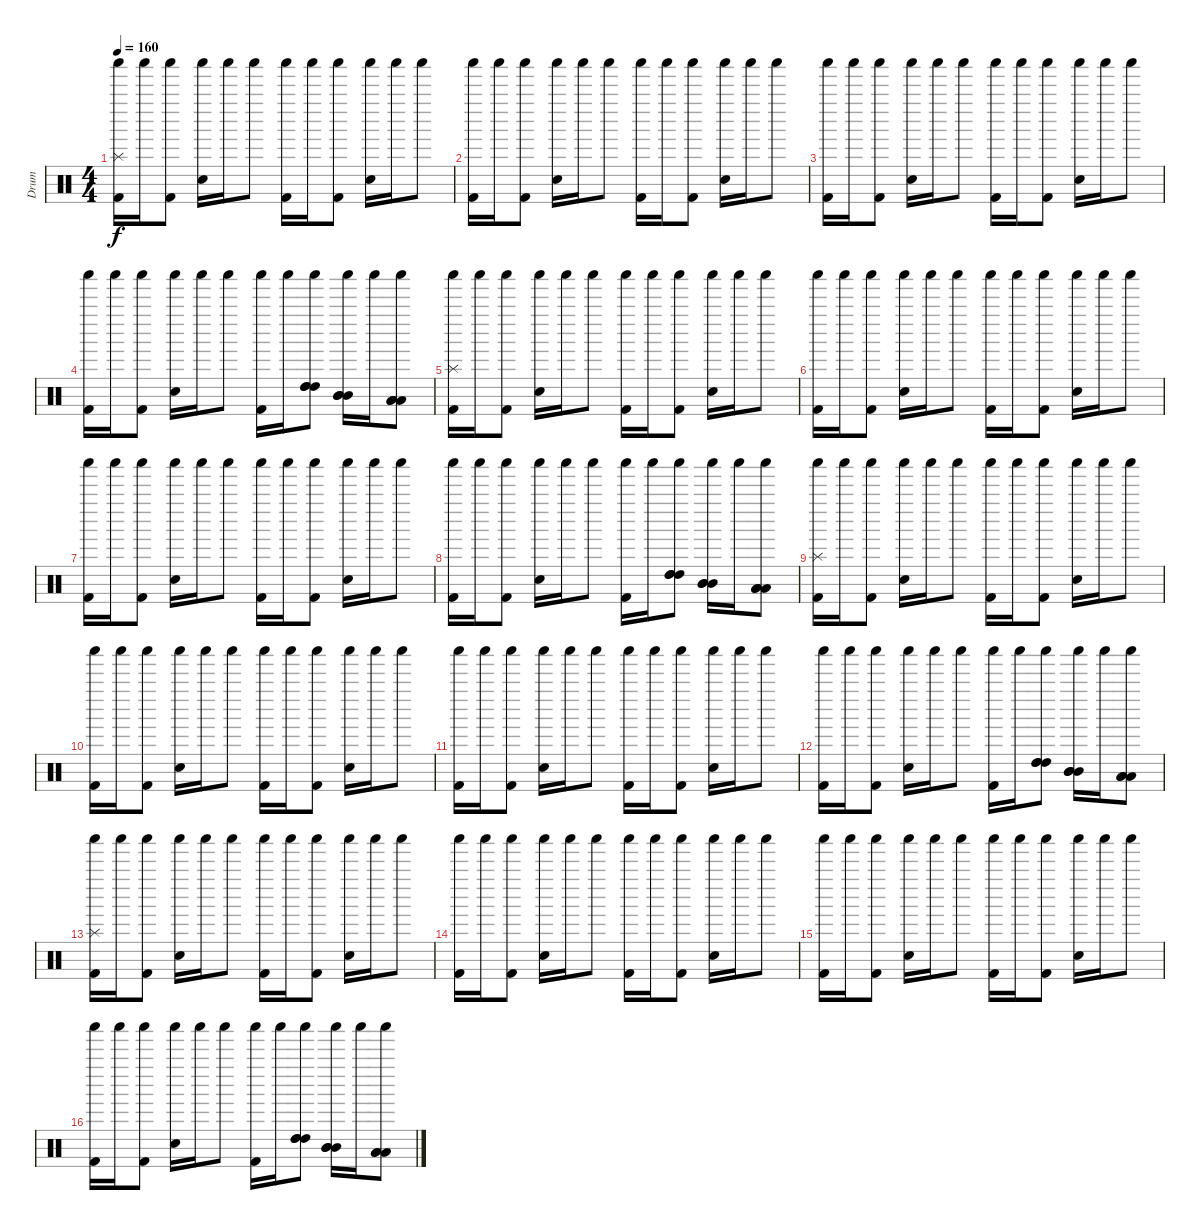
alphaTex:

\track ("Drum" "Drum") {instrument percussion}
\staff {score}
\articulation defaults
\ts (4 4)
\tempo 160
\clef neutral
\ks c
("Splash (hit)" "Shaker (hit)" "Kick (hit) 2").16{dy f} "Shaker (hit)".16 ("Shaker (hit)" "Kick (hit) 2").8 ("Shaker (hit)" "Snare (hit) 2").16 "Shaker (hit)".16 "Shaker (hit)".8 ("Shaker (hit)" "Kick (hit) 2").16 "Shaker (hit)".16 ("Shaker (hit)" "Kick (hit) 2").8 ("Shaker (hit)" "Snare (hit) 2").16 "Shaker (hit)".16 "Shaker (hit)".8 |
("Shaker (hit)" "Kick (hit) 2").16 "Shaker (hit)".16 ("Shaker (hit)" "Kick (hit) 2").8 ("Shaker (hit)" "Snare (hit) 2").16 "Shaker (hit)".16 "Shaker (hit)".8 ("Shaker (hit)" "Kick (hit) 2").16 "Shaker (hit)".16 ("Shaker (hit)" "Kick (hit) 2").8 ("Shaker (hit)" "Snare (hit) 2").16 "Shaker (hit)".16 "Shaker (hit)".8 |
("Shaker (hit)" "Kick (hit) 2").16 "Shaker (hit)".16 ("Shaker (hit)" "Kick (hit) 2").8 ("Shaker (hit)" "Snare (hit) 2").16 "Shaker (hit)".16 "Shaker (hit)".8 ("Shaker (hit)" "Kick (hit) 2").16 "Shaker (hit)".16 ("Shaker (hit)" "Kick (hit) 2").8 ("Shaker (hit)" "Snare (hit) 2").16 "Shaker (hit)".16 "Shaker (hit)".8 |
("Shaker (hit)" "Kick (hit) 2").16 "Shaker (hit)".16 ("Shaker (hit)" "Kick (hit) 2").8 ("Shaker (hit)" "Snare (hit) 2").16 "Shaker (hit)".16 "Shaker (hit)".8 ("Shaker (hit)" "Kick (hit) 2").16 "Shaker (hit)".16 ("High Tom (hit)" "High Tom (hit)" "High Tom (hit)" "Shaker (hit)").8 ("Mid Tom (hit)" "Mid Tom (hit)" "Mid Tom (hit)" "Shaker (hit)").16 "Shaker (hit)".16 ("Low Tom (hit)" "Low Tom (hit)" "Low Tom (hit)" "Shaker (hit)").8 |
("Splash (hit)" "Shaker (hit)" "Kick (hit) 2").16 "Shaker (hit)".16 ("Shaker (hit)" "Kick (hit) 2").8 ("Shaker (hit)" "Snare (hit) 2").16 "Shaker (hit)".16 "Shaker (hit)".8 ("Shaker (hit)" "Kick (hit) 2").16 "Shaker (hit)".16 ("Shaker (hit)" "Kick (hit) 2").8 ("Shaker (hit)" "Snare (hit) 2").16 "Shaker (hit)".16 "Shaker (hit)".8 |
("Shaker (hit)" "Kick (hit) 2").16 "Shaker (hit)".16 ("Shaker (hit)" "Kick (hit) 2").8 ("Shaker (hit)" "Snare (hit) 2").16 "Shaker (hit)".16 "Shaker (hit)".8 ("Shaker (hit)" "Kick (hit) 2").16 "Shaker (hit)".16 ("Shaker (hit)" "Kick (hit) 2").8 ("Shaker (hit)" "Snare (hit) 2").16 "Shaker (hit)".16 "Shaker (hit)".8 |
("Shaker (hit)" "Kick (hit) 2").16 "Shaker (hit)".16 ("Shaker (hit)" "Kick (hit) 2").8 ("Shaker (hit)" "Snare (hit) 2").16 "Shaker (hit)".16 "Shaker (hit)".8 ("Shaker (hit)" "Kick (hit) 2").16 "Shaker (hit)".16 ("Shaker (hit)" "Kick (hit) 2").8 ("Shaker (hit)" "Snare (hit) 2").16 "Shaker (hit)".16 "Shaker (hit)".8 |
("Shaker (hit)" "Kick (hit) 2").16 "Shaker (hit)".16 ("Shaker (hit)" "Kick (hit) 2").8 ("Shaker (hit)" "Snare (hit) 2").16 "Shaker (hit)".16 "Shaker (hit)".8 ("Shaker (hit)" "Kick (hit) 2").16 "Shaker (hit)".16 ("High Tom (hit)" "High Tom (hit)" "High Tom (hit)" "Shaker (hit)").8 ("Mid Tom (hit)" "Mid Tom (hit)" "Mid Tom (hit)" "Shaker (hit)").16 "Shaker (hit)".16 ("Low Tom (hit)" "Low Tom (hit)" "Low Tom (hit)" "Shaker (hit)").8 |
("Splash (hit)" "Shaker (hit)" "Kick (hit) 2").16 "Shaker (hit)".16 ("Shaker (hit)" "Kick (hit) 2").8 ("Shaker (hit)" "Snare (hit) 2").16 "Shaker (hit)".16 "Shaker (hit)".8 ("Shaker (hit)" "Kick (hit) 2").16 "Shaker (hit)".16 ("Shaker (hit)" "Kick (hit) 2").8 ("Shaker (hit)" "Snare (hit) 2").16 "Shaker (hit)".16 "Shaker (hit)".8 |
("Shaker (hit)" "Kick (hit) 2").16 "Shaker (hit)".16 ("Shaker (hit)" "Kick (hit) 2").8 ("Shaker (hit)" "Snare (hit) 2").16 "Shaker (hit)".16 "Shaker (hit)".8 ("Shaker (hit)" "Kick (hit) 2").16 "Shaker (hit)".16 ("Shaker (hit)" "Kick (hit) 2").8 ("Shaker (hit)" "Snare (hit) 2").16 "Shaker (hit)".16 "Shaker (hit)".8 |
("Shaker (hit)" "Kick (hit) 2").16 "Shaker (hit)".16 ("Shaker (hit)" "Kick (hit) 2").8 ("Shaker (hit)" "Snare (hit) 2").16 "Shaker (hit)".16 "Shaker (hit)".8 ("Shaker (hit)" "Kick (hit) 2").16 "Shaker (hit)".16 ("Shaker (hit)" "Kick (hit) 2").8 ("Shaker (hit)" "Snare (hit) 2").16 "Shaker (hit)".16 "Shaker (hit)".8 |
("Shaker (hit)" "Kick (hit) 2").16 "Shaker (hit)".16 ("Shaker (hit)" "Kick (hit) 2").8 ("Shaker (hit)" "Snare (hit) 2").16 "Shaker (hit)".16 "Shaker (hit)".8 ("Shaker (hit)" "Kick (hit) 2").16 "Shaker (hit)".16 ("High Tom (hit)" "High Tom (hit)" "High Tom (hit)" "Shaker (hit)").8 ("Mid Tom (hit)" "Mid Tom (hit)" "Mid Tom (hit)" "Shaker (hit)").16 "Shaker (hit)".16 ("Low Tom (hit)" "Low Tom (hit)" "Low Tom (hit)" "Shaker (hit)").8 |
("Splash (hit)" "Shaker (hit)" "Kick (hit) 2").16 "Shaker (hit)".16 ("Shaker (hit)" "Kick (hit) 2").8 ("Shaker (hit)" "Snare (hit) 2").16 "Shaker (hit)".16 "Shaker (hit)".8 ("Shaker (hit)" "Kick (hit) 2").16 "Shaker (hit)".16 ("Shaker (hit)" "Kick (hit) 2").8 ("Shaker (hit)" "Snare (hit) 2").16 "Shaker (hit)".16 "Shaker (hit)".8 |
("Shaker (hit)" "Kick (hit) 2").16 "Shaker (hit)".16 ("Shaker (hit)" "Kick (hit) 2").8 ("Shaker (hit)" "Snare (hit) 2").16 "Shaker (hit)".16 "Shaker (hit)".8 ("Shaker (hit)" "Kick (hit) 2").16 "Shaker (hit)".16 ("Shaker (hit)" "Kick (hit) 2").8 ("Shaker (hit)" "Snare (hit) 2").16 "Shaker (hit)".16 "Shaker (hit)".8 |
("Shaker (hit)" "Kick (hit) 2").16 "Shaker (hit)".16 ("Shaker (hit)" "Kick (hit) 2").8 ("Shaker (hit)" "Snare (hit) 2").16 "Shaker (hit)".16 "Shaker (hit)".8 ("Shaker (hit)" "Kick (hit) 2").16 "Shaker (hit)".16 ("Shaker (hit)" "Kick (hit) 2").8 ("Shaker (hit)" "Snare (hit) 2").16 "Shaker (hit)".16 "Shaker (hit)".8 |
("Shaker (hit)" "Kick (hit) 2").16 "Shaker (hit)".16 ("Shaker (hit)" "Kick (hit) 2").8 ("Shaker (hit)" "Snare (hit) 2").16 "Shaker (hit)".16 "Shaker (hit)".8 ("Shaker (hit)" "Kick (hit) 2").16 "Shaker (hit)".16 ("High Tom (hit)" "High Tom (hit)" "High Tom (hit)" "Shaker (hit)").8 ("Mid Tom (hit)" "Mid Tom (hit)" "Mid Tom (hit)" "Shaker (hit)").16 "Shaker (hit)".16 ("Low Tom (hit)" "Low Tom (hit)" "Low Tom (hit)" "Shaker (hit)").8
